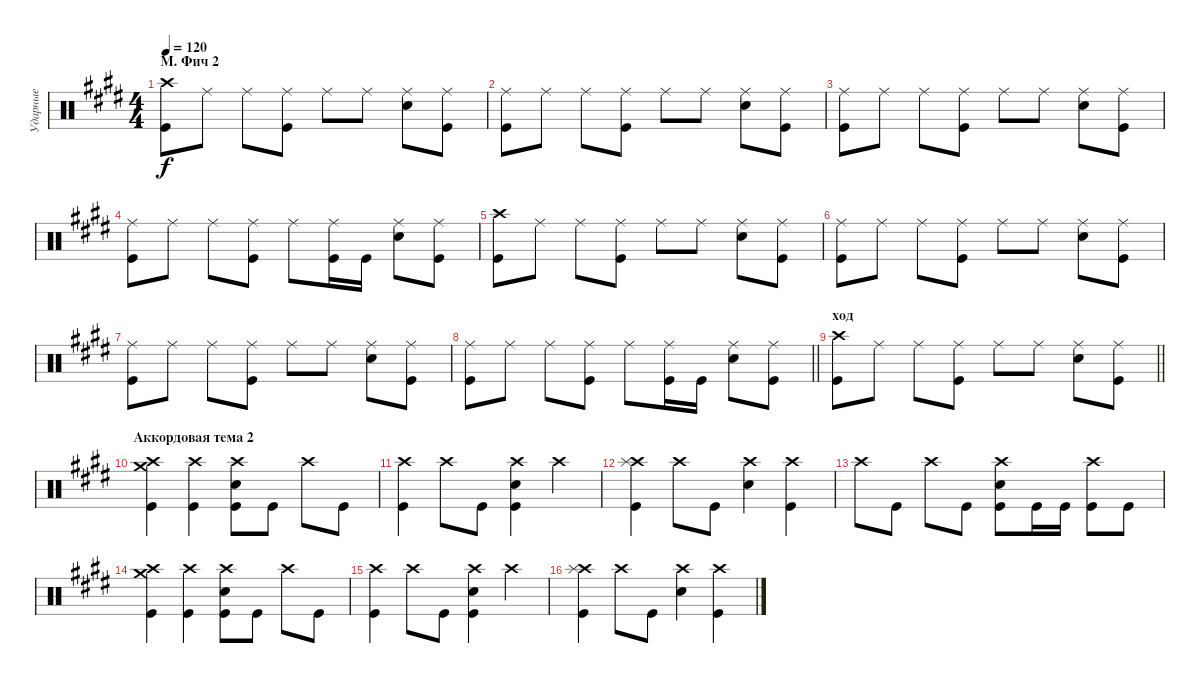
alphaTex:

\track ("Ударные" "Ударные") {instrument percussion}
\staff {score}
\articulation defaults
\ts (4 4)
\section ("" "М. Фич 2")
\tempo 120
\clef neutral
\ks e
("Crash high (hit)" "Kick (hit)").8{dy f} "Ride (middle)".8 "Ride (middle)".8 ("Ride (middle)" "Kick (hit)").8 "Ride (middle)".8 "Ride (middle)".8 ("Ride (middle)" "Electric Snare (hit)").8 ("Ride (middle)" "Kick (hit)").8 |
("Ride (middle)" "Kick (hit)").8 "Ride (middle)".8 "Ride (middle)".8 ("Ride (middle)" "Kick (hit)").8 "Ride (middle)".8 "Ride (middle)".8 ("Ride (middle)" "Electric Snare (hit)").8 ("Ride (middle)" "Kick (hit)").8 |
("Ride (middle)" "Kick (hit)").8 "Ride (middle)".8 "Ride (middle)".8 ("Ride (middle)" "Kick (hit)").8 "Ride (middle)".8 "Ride (middle)".8 ("Ride (middle)" "Electric Snare (hit)").8 ("Ride (middle)" "Kick (hit)").8 |
("Ride (middle)" "Kick (hit)").8 "Ride (middle)".8 "Ride (middle)".8 ("Ride (middle)" "Kick (hit)").8 "Ride (middle)".8 ("Ride (middle)" "Kick (hit)").16 "Kick (hit)".16 ("Ride (middle)" "Electric Snare (hit)").8 ("Ride (middle)" "Kick (hit)").8 |
("Crash high (hit)" "Kick (hit)").8 "Ride (middle)".8 "Ride (middle)".8 ("Ride (middle)" "Kick (hit)").8 "Ride (middle)".8 "Ride (middle)".8 ("Ride (middle)" "Electric Snare (hit)").8 ("Ride (middle)" "Kick (hit)").8 |
("Ride (middle)" "Kick (hit)").8 "Ride (middle)".8 "Ride (middle)".8 ("Ride (middle)" "Kick (hit)").8 "Ride (middle)".8 "Ride (middle)".8 ("Ride (middle)" "Electric Snare (hit)").8 ("Ride (middle)" "Kick (hit)").8 |
("Ride (middle)" "Kick (hit)").8 "Ride (middle)".8 "Ride (middle)".8 ("Ride (middle)" "Kick (hit)").8 "Ride (middle)".8 "Ride (middle)".8 ("Ride (middle)" "Electric Snare (hit)").8 ("Ride (middle)" "Kick (hit)").8 |
\barLineRight lightlight
("Ride (middle)" "Kick (hit)").8 "Ride (middle)".8 "Ride (middle)".8 ("Ride (middle)" "Kick (hit)").8 "Ride (middle)".8 ("Ride (middle)" "Kick (hit)").16 "Kick (hit)".16 ("Ride (middle)" "Electric Snare (hit)").8 ("Ride (middle)" "Kick (hit)").8 |
\section ("" "ход")
\barLineRight lightlight
("Crash high (hit)" "Kick (hit)").8 "Ride (middle)".8 "Ride (middle)".8 ("Ride (middle)" "Kick (hit)").8 "Ride (middle)".8 "Ride (middle)".8 ("Ride (middle)" "Electric Snare (hit)").8 ("Ride (middle)" "Kick (hit)").8 |
\section ("" "Аккордовая тема 2")
("Crash high (hit)" "Crash medium (hit)" "Kick (hit)").4 ("Crash high (hit)" "Kick (hit)").4 ("Crash high (hit)" "Electric Snare (hit)" "Kick (hit)").8 "Kick (hit)".8 "Crash high (hit)".8 "Kick (hit)".8 |
("Crash high (hit)" "Kick (hit)").4 "Crash high (hit)".8 "Kick (hit)".8 ("Crash high (hit)" "Electric Snare (hit)" "Kick (hit)").4 "Crash high (hit)".4 |
("Crash high (hit)" "Splash (hit)" "Kick (hit)").4 "Crash high (hit)".8 "Kick (hit)".8 ("Crash high (hit)" "Electric Snare (hit)").4 ("Crash high (hit)" "Kick (hit)").4 |
"Crash high (hit)".8 "Kick (hit)".8 "Crash high (hit)".8 "Kick (hit)".8 ("Crash high (hit)" "Electric Snare (hit)" "Kick (hit)").8 "Kick (hit)".16 "Kick (hit)".16 ("Crash high (hit)" "Kick (hit)").8 "Kick (hit)".8 |
("Crash high (hit)" "Crash medium (hit)" "Kick (hit)").4 ("Crash high (hit)" "Kick (hit)").4 ("Crash high (hit)" "Electric Snare (hit)" "Kick (hit)").8 "Kick (hit)".8 "Crash high (hit)".8 "Kick (hit)".8 |
("Crash high (hit)" "Kick (hit)").4 "Crash high (hit)".8 "Kick (hit)".8 ("Crash high (hit)" "Electric Snare (hit)" "Kick (hit)").4 "Crash high (hit)".4 |
("Crash high (hit)" "Splash (hit)" "Kick (hit)").4 "Crash high (hit)".8 "Kick (hit)".8 ("Crash high (hit)" "Electric Snare (hit)").4 ("Crash high (hit)" "Kick (hit)").4
